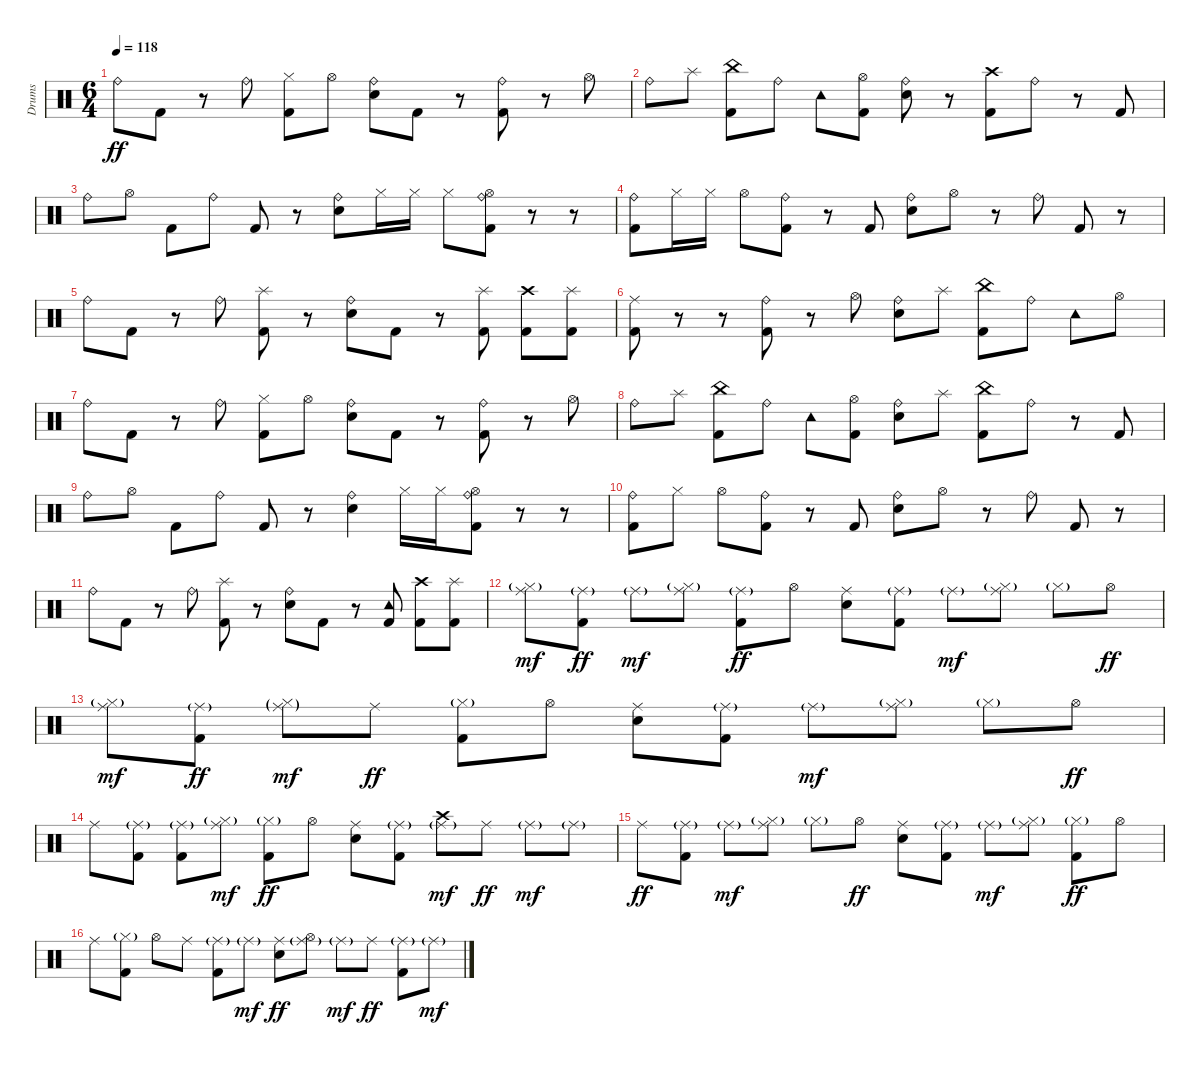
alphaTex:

\track ("Drums" "Drums") {instrument percussion}
\staff {score}
\articulation defaults
\ts (6 4)
\tempo 118
\clef neutral
\ks c "Ride (bell)".8{dy ff} "Kick (hit) 2".8
r.8 "Ride (bell)".8 ("Hi-Hat (closed)" "Kick (hit) 2").8 "Hi-Hat (open)".8 ("Ride (bell)" "Electric Snare (hit)").8 "Kick (hit) 2".8 r.8 ("Ride (bell)" "Kick (hit) 2").8 r.8 "Hi-Hat (open)".8 |
"Ride (bell)".8 "Splash (hit)".8 ("China (hit)" "Kick (hit) 2").8 "Ride (bell)".8 "Tambourine (hit)".8 ("Hi-Hat (open)" "Kick (hit) 2").8 ("Ride (bell)" "Electric Snare (hit)").8 r.8 ("Crash high (hit)" "Kick (hit) 2").8 "Ride (bell)".8 r.8 "Kick (hit) 2".8 |
"Ride (bell)".8 "Hi-Hat (open)".8 "Kick (hit) 2".8 "Ride (bell)".8 "Kick (hit) 2".8 r.8 ("Ride (bell)" "Electric Snare (hit)").8 "Hi-Hat (closed)".16 "Hi-Hat (closed)".16 "Hi-Hat (closed)".8 ("Ride (bell)" "Hi-Hat (open)" "Kick (hit) 2").8 r.8 r.8 |
("Ride (bell)" "Kick (hit) 2").8 "Hi-Hat (closed)".16 "Hi-Hat (closed)".16 "Hi-Hat (open)".8 ("Ride (bell)" "Kick (hit) 2").8 r.8 "Kick (hit) 2".8 ("Ride (bell)" "Electric Snare (hit)").8 "Hi-Hat (open)".8 r.8 "Ride (bell)".8 "Kick (hit) 2".8 r.8 |
"Ride (bell)".8 "Kick (hit) 2".8 r.8 "Ride (bell)".8 ("Splash (hit)" "Kick (hit) 2").8 r.8 ("Ride (bell)" "Electric Snare (hit)").8 "Kick (hit) 2".8 r.8 ("Splash (hit)" "Kick (hit) 2").8 ("Crash high (hit)" "Kick (hit) 2").8 ("Splash (hit)" "Kick (hit) 2").8 |
("Ride (middle)" "Kick (hit) 2").8 r.8 r.8 ("Ride (bell)" "Kick (hit) 2").8 r.8 "Hi-Hat (open)".8 ("Ride (bell)" "Electric Snare (hit)").8 "Splash (hit)".8 ("China (hit)" "Kick (hit) 2").8 "Ride (bell)".8 "Tambourine (hit)".8 "Hi-Hat (open)".8 |
"Ride (bell)".8 "Kick (hit) 2".8 r.8 "Ride (bell)".8 ("Hi-Hat (closed)" "Kick (hit) 2").8 "Hi-Hat (open)".8 ("Ride (bell)" "Electric Snare (hit)").8 "Kick (hit) 2".8 r.8 ("Ride (bell)" "Kick (hit) 2").8 r.8 "Hi-Hat (open)".8 |
"Ride (bell)".8 "Splash (hit)".8 ("China (hit)" "Kick (hit) 2").8 "Ride (bell)".8 "Tambourine (hit)".8 ("Hi-Hat (open)" "Kick (hit) 2").8 ("Ride (bell)" "Electric Snare (hit)").8 "Splash (hit)".8 ("China (hit)" "Kick (hit) 2").8 "Ride (bell)".8 r.8 "Kick (hit) 2".8 |
"Ride (bell)".8 "Hi-Hat (open)".8 "Kick (hit) 2".8 "Ride (bell)".8 "Kick (hit) 2".8 r.8 ("Ride (bell)" "Electric Snare (hit)").4 "Hi-Hat (closed)".16 "Hi-Hat (closed)".16 ("Ride (bell)" "Hi-Hat (open)" "Kick (hit) 2").8 r.8 r.8 |
("Ride (bell)" "Kick (hit) 2").8 "Hi-Hat (closed)".8 "Hi-Hat (open)".8 ("Ride (bell)" "Kick (hit) 2").8 r.8 "Kick (hit) 2".8 ("Ride (bell)" "Electric Snare (hit)").8 "Hi-Hat (open)".8 r.8 "Ride (bell)".8 "Kick (hit) 2".8 r.8 |
"Ride (bell)".8 "Kick (hit) 2".8 r.8 "Ride (bell)".8 ("Splash (hit)" "Kick (hit) 2").8 r.8 ("Ride (bell)" "Electric Snare (hit)").8 "Kick (hit) 2".8 r.8 ("Tambourine (hit)" "Kick (hit) 2").8 ("Crash high (hit)" "Kick (hit) 2").8 ("Splash (hit)" "Kick (hit) 2").8 |
\section ("" "")
("Ride (middle)" "Hi-Hat (closed)"{g}).8{dy mf} ("Ride (middle)"{g} "Kick (hit) 2").8{dy ff} "Ride (middle)"{g}.8{dy mf} ("Ride (middle)" "Hi-Hat (closed)"{g}).8 ("Ride (middle)"{g} "Kick (hit) 2").8{dy ff} "Hi-Hat (open)".8 ("Ride (middle)" "Electric Snare (hit)").8 ("Ride (middle)"{g} "Kick (hit) 2").8 "Ride (middle)"{g}.8{dy mf} ("Ride (middle)" "Hi-Hat (closed)"{g}).8 "Hi-Hat (closed)"{g}.8 "Hi-Hat (open)".8{dy ff} |
("Ride (middle)" "Hi-Hat (closed)"{g}).8{dy mf} ("Ride (middle)"{g} "Kick (hit) 2").8{dy ff} ("Ride (middle)"{g} "Hi-Hat (closed)"{g}).8{dy mf} "Ride (middle)".8{dy ff} ("Hi-Hat (closed)"{g} "Kick (hit) 2").8 "Hi-Hat (open)".8 ("Ride (middle)" "Electric Snare (hit)").8 ("Ride (middle)"{g} "Kick (hit) 2").8 "Ride (middle)"{g}.8{dy mf} ("Ride (middle)" "Hi-Hat (closed)"{g}).8 "Hi-Hat (closed)"{g}.8 "Hi-Hat (open)".8{dy ff} |
"Ride (middle)".8 ("Ride (middle)"{g} "Kick (hit) 2").8 ("Ride (middle)"{g} "Kick (hit) 2").8 ("Ride (middle)" "Hi-Hat (closed)"{g}).8{dy mf} ("Hi-Hat (closed)"{g} "Kick (hit) 2").8{dy ff} "Hi-Hat (open)".8 ("Ride (middle)" "Electric Snare (hit)").8 ("Ride (middle)"{g} "Kick (hit) 2").8 ("Crash high (hit)" "Ride (middle)"{g}).8{dy mf} "Ride (middle)".8{dy ff} "Ride (middle)"{g}.8{dy mf} "Ride (middle)"{g}.8 |
"Ride (middle)".8{dy ff} ("Ride (middle)"{g} "Kick (hit) 2").8 "Ride (middle)"{g}.8{dy mf} ("Ride (middle)" "Hi-Hat (closed)"{g}).8 "Hi-Hat (closed)"{g}.8 "Hi-Hat (open)".8{dy ff} ("Ride (middle)" "Electric Snare (hit)").8 ("Ride (middle)"{g} "Kick (hit) 2").8 "Ride (middle)"{g}.8{dy mf} ("Ride (middle)" "Hi-Hat (closed)"{g}).8 ("Hi-Hat (closed)"{g} "Kick (hit) 2").8{dy ff} "Hi-Hat (open)".8 |
"Ride (middle)".8 ("Hi-Hat (closed)"{g} "Kick (hit) 2").8 "Hi-Hat (open)".8 "Ride (middle)".8 ("Ride (middle)"{g} "Kick (hit) 2").8 "Ride (middle)"{g}.8{dy mf} ("Ride (middle)" "Electric Snare (hit)").8{dy ff} ("Ride (middle)"{g} "Hi-Hat (open)").8 "Ride (middle)"{g}.8{dy mf} "Ride (middle)".8{dy ff} ("Ride (middle)"{g} "Kick (hit) 2").8 "Ride (middle)"{g}.8{dy mf}
